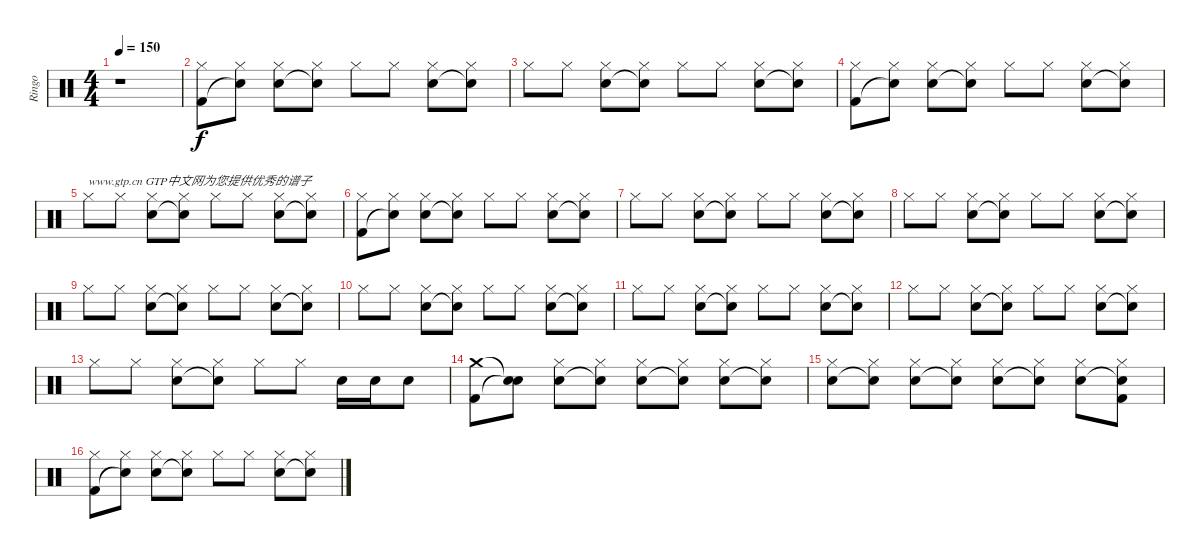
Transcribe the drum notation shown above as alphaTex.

\track ("Ringo" "Ringo") {instrument percussion}
\staff {score}
\articulation defaults
\ts (4 4)
\tempo 150
\clef neutral
\ks c
r.1{dy f} |
("Hi-Hat (closed)" "Kick (hit) 2").8 ("Hi-Hat (closed)" "Snare (hit)"{t}).8 ("Hi-Hat (closed)" "Snare (hit) 2").8 ("Hi-Hat (closed)" "Snare (hit)"{t}).8 "Hi-Hat (closed)".8 "Hi-Hat (closed)".8 ("Hi-Hat (closed)" "Snare (hit) 2").8 ("Hi-Hat (closed)" "Snare (hit)"{t}).8 |
"Hi-Hat (closed)".8 "Hi-Hat (closed)".8 ("Hi-Hat (closed)" "Snare (hit) 2").8 ("Hi-Hat (closed)" "Snare (hit)"{t}).8 "Hi-Hat (closed)".8 "Hi-Hat (closed)".8 ("Hi-Hat (closed)" "Snare (hit) 2").8 ("Hi-Hat (closed)" "Snare (hit)"{t}).8 |
("Hi-Hat (closed)" "Kick (hit) 2").8 ("Hi-Hat (closed)" "Snare (hit)"{t}).8 ("Hi-Hat (closed)" "Snare (hit) 2").8 ("Hi-Hat (closed)" "Snare (hit)"{t}).8 "Hi-Hat (closed)".8 "Hi-Hat (closed)".8 ("Hi-Hat (closed)" "Snare (hit) 2").8 ("Hi-Hat (closed)" "Snare (hit)"{t}).8 |
"Hi-Hat (closed)".8{txt "www.gtp.cn GTP中文网为您提供优秀的谱子"} "Hi-Hat (closed)".8 ("Hi-Hat (closed)" "Snare (hit) 2").8 ("Hi-Hat (closed)" "Snare (hit)"{t}).8 "Hi-Hat (closed)".8 "Hi-Hat (closed)".8 ("Hi-Hat (closed)" "Snare (hit) 2").8 ("Hi-Hat (closed)" "Snare (hit)"{t}).8 |
("Hi-Hat (closed)" "Kick (hit) 2").8 ("Hi-Hat (closed)" "Snare (hit)"{t}).8 ("Hi-Hat (closed)" "Snare (hit) 2").8 ("Hi-Hat (closed)" "Snare (hit)"{t}).8 "Hi-Hat (closed)".8 "Hi-Hat (closed)".8 ("Hi-Hat (closed)" "Snare (hit) 2").8 ("Hi-Hat (closed)" "Snare (hit)"{t}).8 |
"Hi-Hat (closed)".8 "Hi-Hat (closed)".8 ("Hi-Hat (closed)" "Snare (hit) 2").8 ("Hi-Hat (closed)" "Snare (hit)"{t}).8 "Hi-Hat (closed)".8 "Hi-Hat (closed)".8 ("Hi-Hat (closed)" "Snare (hit) 2").8 ("Hi-Hat (closed)" "Snare (hit)"{t}).8 |
"Hi-Hat (closed)".8 "Hi-Hat (closed)".8 ("Hi-Hat (closed)" "Snare (hit) 2").8 ("Hi-Hat (closed)" "Snare (hit)"{t}).8 "Hi-Hat (closed)".8 "Hi-Hat (closed)".8 ("Hi-Hat (closed)" "Snare (hit) 2").8 ("Hi-Hat (closed)" "Snare (hit)"{t}).8 |
"Hi-Hat (closed)".8 "Hi-Hat (closed)".8 ("Hi-Hat (closed)" "Snare (hit) 2").8 ("Hi-Hat (closed)" "Snare (hit)"{t}).8 "Hi-Hat (closed)".8 "Hi-Hat (closed)".8 ("Hi-Hat (closed)" "Snare (hit) 2").8 ("Hi-Hat (closed)" "Snare (hit)"{t}).8 |
"Hi-Hat (closed)".8 "Hi-Hat (closed)".8 ("Hi-Hat (closed)" "Snare (hit) 2").8 ("Hi-Hat (closed)" "Snare (hit)"{t}).8 "Hi-Hat (closed)".8 "Hi-Hat (closed)".8 ("Hi-Hat (closed)" "Snare (hit) 2").8 ("Hi-Hat (closed)" "Snare (hit)"{t}).8 |
"Hi-Hat (closed)".8 "Hi-Hat (closed)".8 ("Hi-Hat (closed)" "Snare (hit) 2").8 ("Hi-Hat (closed)" "Snare (hit)"{t}).8 "Hi-Hat (closed)".8 "Hi-Hat (closed)".8 ("Hi-Hat (closed)" "Snare (hit) 2").8 ("Hi-Hat (closed)" "Snare (hit)"{t}).8 |
"Hi-Hat (closed)".8 "Hi-Hat (closed)".8 ("Hi-Hat (closed)" "Snare (hit) 2").8 ("Hi-Hat (closed)" "Snare (hit)"{t}).8 "Hi-Hat (closed)".8 "Hi-Hat (closed)".8 ("Hi-Hat (closed)" "Snare (hit) 2").8 ("Hi-Hat (closed)" "Snare (hit)"{t}).8 |
"Hi-Hat (closed)".8 "Hi-Hat (closed)".8 ("Hi-Hat (closed)" "Snare (hit) 2").8 ("Hi-Hat (closed)" "Snare (hit)"{t}).8 "Hi-Hat (closed)".8 "Hi-Hat (closed)".8 "Snare (hit) 2".16 "Snare (hit) 2".16 "Snare (hit) 2".8 |
("Crash medium (hit)" "Kick (hit) 2").8 ("Snare (hit)"{t} "Snare (hit)"{t}).8 ("Hi-Hat (closed)" "Snare (hit) 2").8 ("Hi-Hat (closed)" "Snare (hit)"{t}).8 ("Hi-Hat (closed)" "Snare (hit) 2").8 ("Hi-Hat (closed)" "Snare (hit)"{t}).8 ("Hi-Hat (closed)" "Snare (hit) 2").8 ("Hi-Hat (closed)" "Snare (hit)"{t}).8 |
("Hi-Hat (closed)" "Snare (hit) 2").8 ("Hi-Hat (closed)" "Snare (hit)"{t}).8 ("Hi-Hat (closed)" "Snare (hit) 2").8 ("Hi-Hat (closed)" "Snare (hit)"{t}).8 ("Hi-Hat (closed)" "Snare (hit) 2").8 ("Hi-Hat (closed)" "Snare (hit)"{t}).8 ("Hi-Hat (closed)" "Snare (hit) 2").8 ("Hi-Hat (closed)" "Snare (hit)"{t} "Kick (hit) 2").8 |
("Hi-Hat (closed)" "Kick (hit) 2").8 ("Hi-Hat (closed)" "Snare (hit)"{t}).8 ("Hi-Hat (closed)" "Snare (hit) 2").8 ("Hi-Hat (closed)" "Snare (hit)"{t}).8 "Hi-Hat (closed)".8 "Hi-Hat (closed)".8 ("Hi-Hat (closed)" "Snare (hit) 2").8 ("Hi-Hat (closed)" "Snare (hit)"{t}).8
